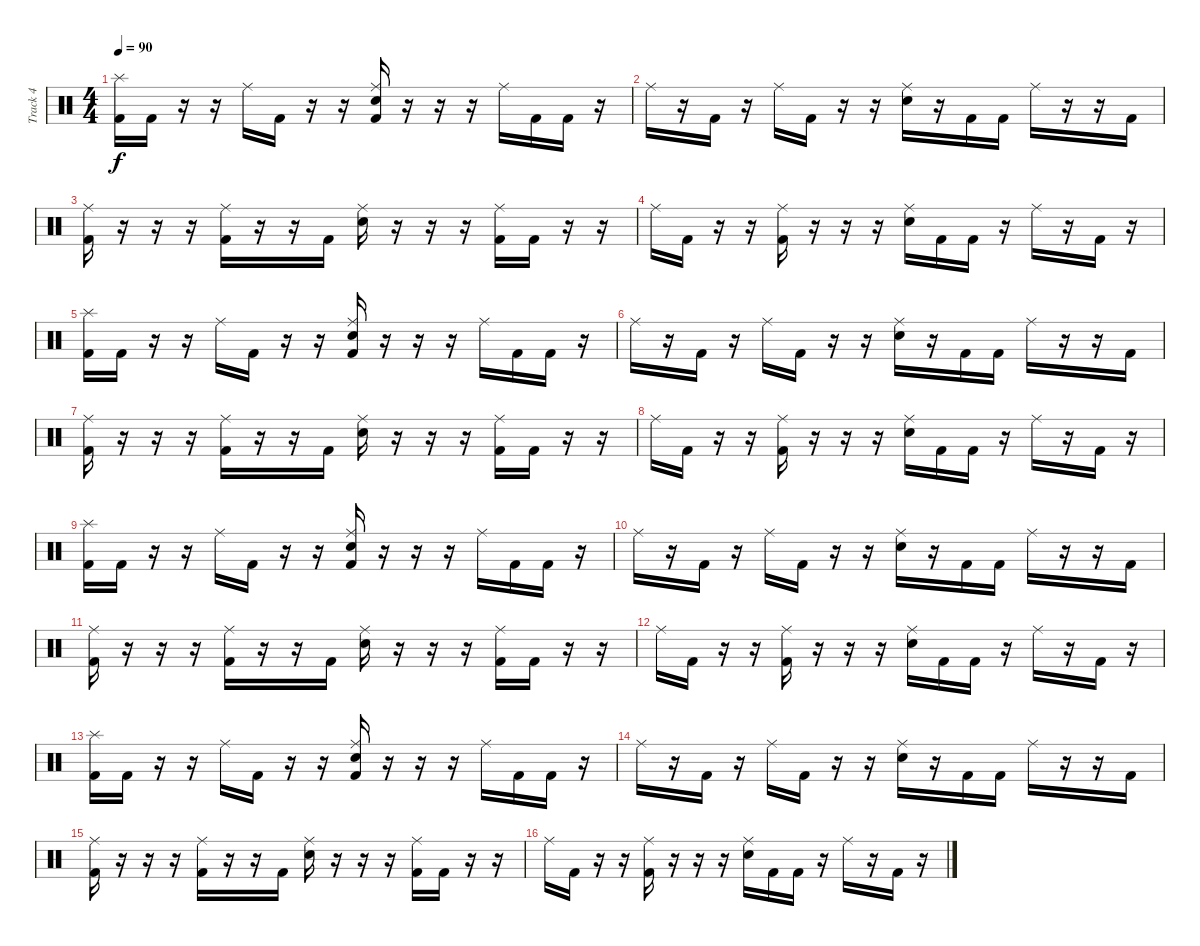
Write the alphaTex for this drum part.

\track ("Track 4" "Track 4") {instrument percussion}
\staff {score}
\articulation defaults
\ts (4 4)
\tempo 90
\clef neutral
\ks c
("Splash (hit)" "Kick (hit) 2").16{dy f} "Kick (hit) 2".16 r.16 r.16 "Ride (middle)".16 "Kick (hit) 2".16 r.16 r.16 ("Ride (middle)" "Electric Snare (hit)" "Kick (hit) 2").16 r.16 r.16 r.16 "Ride (middle)".16 "Kick (hit) 2".16 "Kick (hit) 2".16 r.16 |
"Ride (middle)".16 r.16 "Kick (hit) 2".16 r.16 "Ride (middle)".16 "Kick (hit) 2".16 r.16 r.16 ("Ride (middle)" "Electric Snare (hit)").16 r.16 "Kick (hit) 2".16 "Kick (hit) 2".16 "Ride (middle)".16 r.16 r.16 "Kick (hit) 2".16 |
("Ride (middle)" "Kick (hit) 2").16 r.16 r.16 r.16 ("Ride (middle)" "Kick (hit) 2").16 r.16 r.16 "Kick (hit) 2".16 ("Ride (middle)" "Electric Snare (hit)").16 r.16 r.16 r.16 ("Ride (middle)" "Kick (hit) 2").16 "Kick (hit) 2".16 r.16 r.16 |
"Ride (middle)".16 "Kick (hit) 2".16 r.16 r.16 ("Ride (middle)" "Kick (hit) 2").16 r.16 r.16 r.16 ("Ride (middle)" "Electric Snare (hit)").16 "Kick (hit) 2".16 "Kick (hit) 2".16 r.16 "Ride (middle)".16 r.16 "Kick (hit) 2".16 r.16 |
("Splash (hit)" "Kick (hit) 2").16 "Kick (hit) 2".16 r.16 r.16 "Ride (middle)".16 "Kick (hit) 2".16 r.16 r.16 ("Ride (middle)" "Electric Snare (hit)" "Kick (hit) 2").16 r.16 r.16 r.16 "Ride (middle)".16 "Kick (hit) 2".16 "Kick (hit) 2".16 r.16 |
"Ride (middle)".16 r.16 "Kick (hit) 2".16 r.16 "Ride (middle)".16 "Kick (hit) 2".16 r.16 r.16 ("Ride (middle)" "Electric Snare (hit)").16 r.16 "Kick (hit) 2".16 "Kick (hit) 2".16 "Ride (middle)".16 r.16 r.16 "Kick (hit) 2".16 |
("Ride (middle)" "Kick (hit) 2").16 r.16 r.16 r.16 ("Ride (middle)" "Kick (hit) 2").16 r.16 r.16 "Kick (hit) 2".16 ("Ride (middle)" "Electric Snare (hit)").16 r.16 r.16 r.16 ("Ride (middle)" "Kick (hit) 2").16 "Kick (hit) 2".16 r.16 r.16 |
"Ride (middle)".16 "Kick (hit) 2".16 r.16 r.16 ("Ride (middle)" "Kick (hit) 2").16 r.16 r.16 r.16 ("Ride (middle)" "Electric Snare (hit)").16 "Kick (hit) 2".16 "Kick (hit) 2".16 r.16 "Ride (middle)".16 r.16 "Kick (hit) 2".16 r.16 |
("Splash (hit)" "Kick (hit) 2").16 "Kick (hit) 2".16 r.16 r.16 "Ride (middle)".16 "Kick (hit) 2".16 r.16 r.16 ("Ride (middle)" "Electric Snare (hit)" "Kick (hit) 2").16 r.16 r.16 r.16 "Ride (middle)".16 "Kick (hit) 2".16 "Kick (hit) 2".16 r.16 |
"Ride (middle)".16 r.16 "Kick (hit) 2".16 r.16 "Ride (middle)".16 "Kick (hit) 2".16 r.16 r.16 ("Ride (middle)" "Electric Snare (hit)").16 r.16 "Kick (hit) 2".16 "Kick (hit) 2".16 "Ride (middle)".16 r.16 r.16 "Kick (hit) 2".16 |
("Ride (middle)" "Kick (hit) 2").16 r.16 r.16 r.16 ("Ride (middle)" "Kick (hit) 2").16 r.16 r.16 "Kick (hit) 2".16 ("Ride (middle)" "Electric Snare (hit)").16 r.16 r.16 r.16 ("Ride (middle)" "Kick (hit) 2").16 "Kick (hit) 2".16 r.16 r.16 |
"Ride (middle)".16 "Kick (hit) 2".16 r.16 r.16 ("Ride (middle)" "Kick (hit) 2").16 r.16 r.16 r.16 ("Ride (middle)" "Electric Snare (hit)").16 "Kick (hit) 2".16 "Kick (hit) 2".16 r.16 "Ride (middle)".16 r.16 "Kick (hit) 2".16 r.16 |
("Splash (hit)" "Kick (hit) 2").16 "Kick (hit) 2".16 r.16 r.16 "Ride (middle)".16 "Kick (hit) 2".16 r.16 r.16 ("Ride (middle)" "Electric Snare (hit)" "Kick (hit) 2").16 r.16 r.16 r.16 "Ride (middle)".16 "Kick (hit) 2".16 "Kick (hit) 2".16 r.16 |
"Ride (middle)".16 r.16 "Kick (hit) 2".16 r.16 "Ride (middle)".16 "Kick (hit) 2".16 r.16 r.16 ("Ride (middle)" "Electric Snare (hit)").16 r.16 "Kick (hit) 2".16 "Kick (hit) 2".16 "Ride (middle)".16 r.16 r.16 "Kick (hit) 2".16 |
("Ride (middle)" "Kick (hit) 2").16 r.16 r.16 r.16 ("Ride (middle)" "Kick (hit) 2").16 r.16 r.16 "Kick (hit) 2".16 ("Ride (middle)" "Electric Snare (hit)").16 r.16 r.16 r.16 ("Ride (middle)" "Kick (hit) 2").16 "Kick (hit) 2".16 r.16 r.16 |
"Ride (middle)".16 "Kick (hit) 2".16 r.16 r.16 ("Ride (middle)" "Kick (hit) 2").16 r.16 r.16 r.16 ("Ride (middle)" "Electric Snare (hit)").16 "Kick (hit) 2".16 "Kick (hit) 2".16 r.16 "Ride (middle)".16 r.16 "Kick (hit) 2".16 r.16
